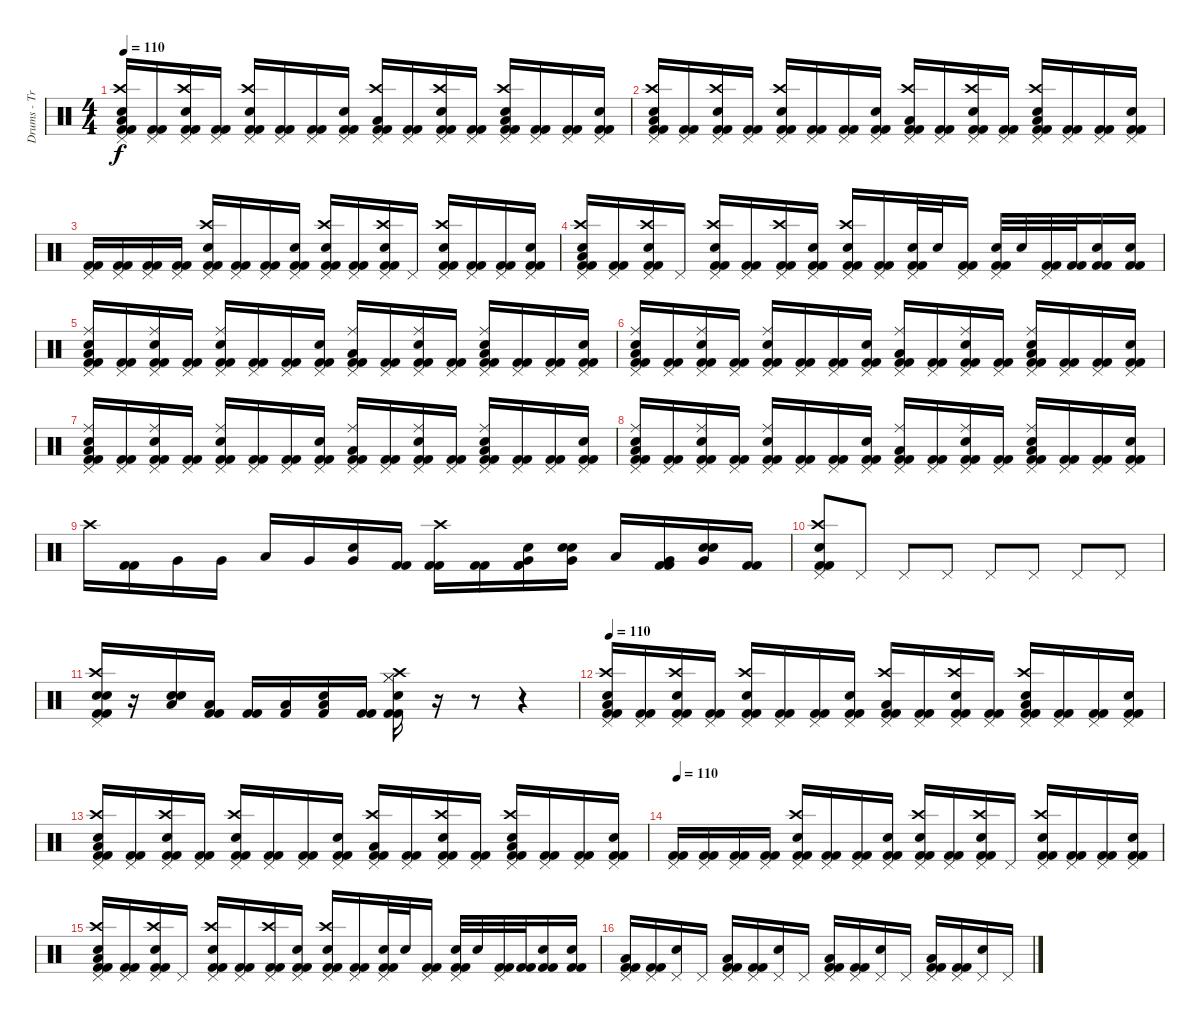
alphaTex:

\track ("Drums - Travis Barker" "Drums - Tr") {instrument percussion}
\staff {score}
\articulation defaults
\ts (4 4)
\tempo 110
\clef neutral
\ks c
("Pedal Hi-Hat (hit)" "Crash high (hit)" "Low Tom (hit)" "Electric Snare (hit)" "Kick (hit) 2" "Kick (hit) 2").16{dy f} ("Pedal Hi-Hat (hit)" "Kick (hit) 2" "Kick (hit) 2").16 ("Pedal Hi-Hat (hit)" "Crash high (hit)" "Electric Snare (hit)" "Kick (hit) 2" "Kick (hit) 2").16 ("Pedal Hi-Hat (hit)" "Kick (hit) 2" "Kick (hit) 2").16 ("Pedal Hi-Hat (hit)" "Crash high (hit)" "Electric Snare (hit)" "Kick (hit) 2" "Kick (hit) 2").16 ("Pedal Hi-Hat (hit)" "Kick (hit) 2" "Kick (hit) 2").16 ("Pedal Hi-Hat (hit)" "Kick (hit) 2" "Kick (hit) 2").16 ("Pedal Hi-Hat (hit)" "Electric Snare (hit)" "Kick (hit) 2" "Kick (hit) 2").16 ("Pedal Hi-Hat (hit)" "Crash high (hit)" "Low Tom (hit)" "Kick (hit) 2" "Kick (hit) 2").16 ("Pedal Hi-Hat (hit)" "Kick (hit) 2" "Kick (hit) 2").16 ("Pedal Hi-Hat (hit)" "Crash high (hit)" "Electric Snare (hit)" "Kick (hit) 2" "Kick (hit) 2").16 ("Pedal Hi-Hat (hit)" "Kick (hit) 2" "Kick (hit) 2").16 ("Pedal Hi-Hat (hit)" "Crash high (hit)" "Low Tom (hit)" "Electric Snare (hit)" "Kick (hit) 2" "Kick (hit) 2").16 ("Pedal Hi-Hat (hit)" "Kick (hit) 2" "Kick (hit) 2").16 ("Pedal Hi-Hat (hit)" "Kick (hit) 2" "Kick (hit) 2").16 ("Pedal Hi-Hat (hit)" "Electric Snare (hit)" "Kick (hit) 2" "Kick (hit) 2").16 |
("Pedal Hi-Hat (hit)" "Crash high (hit)" "Low Tom (hit)" "Electric Snare (hit)" "Kick (hit) 2" "Kick (hit) 2").16 ("Pedal Hi-Hat (hit)" "Kick (hit) 2" "Kick (hit) 2").16 ("Pedal Hi-Hat (hit)" "Crash high (hit)" "Electric Snare (hit)" "Kick (hit) 2" "Kick (hit) 2").16 ("Pedal Hi-Hat (hit)" "Kick (hit) 2" "Kick (hit) 2").16 ("Pedal Hi-Hat (hit)" "Crash high (hit)" "Electric Snare (hit)" "Kick (hit) 2" "Kick (hit) 2").16 ("Pedal Hi-Hat (hit)" "Kick (hit) 2" "Kick (hit) 2").16 ("Pedal Hi-Hat (hit)" "Kick (hit) 2" "Kick (hit) 2").16 ("Pedal Hi-Hat (hit)" "Electric Snare (hit)" "Kick (hit) 2" "Kick (hit) 2").16 ("Pedal Hi-Hat (hit)" "Crash high (hit)" "Low Tom (hit)" "Kick (hit) 2" "Kick (hit) 2").16 ("Pedal Hi-Hat (hit)" "Kick (hit) 2" "Kick (hit) 2").16 ("Pedal Hi-Hat (hit)" "Crash high (hit)" "Electric Snare (hit)" "Kick (hit) 2" "Kick (hit) 2").16 ("Pedal Hi-Hat (hit)" "Kick (hit) 2" "Kick (hit) 2").16 ("Pedal Hi-Hat (hit)" "Crash high (hit)" "Low Tom (hit)" "Electric Snare (hit)" "Kick (hit) 2" "Kick (hit) 2").16 ("Pedal Hi-Hat (hit)" "Kick (hit) 2" "Kick (hit) 2").16 ("Pedal Hi-Hat (hit)" "Kick (hit) 2" "Kick (hit) 2").16 ("Pedal Hi-Hat (hit)" "Electric Snare (hit)" "Kick (hit) 2" "Kick (hit) 2").16 |
("Pedal Hi-Hat (hit)" "Kick (hit) 2" "Kick (hit) 2").16 ("Pedal Hi-Hat (hit)" "Kick (hit) 2" "Kick (hit) 2").16 ("Pedal Hi-Hat (hit)" "Kick (hit) 2" "Kick (hit) 2").16 ("Pedal Hi-Hat (hit)" "Kick (hit) 2" "Kick (hit) 2").16 ("Pedal Hi-Hat (hit)" "Crash high (hit)" "Electric Snare (hit)" "Kick (hit) 2" "Kick (hit) 2").16 ("Pedal Hi-Hat (hit)" "Kick (hit) 2" "Kick (hit) 2").16 ("Pedal Hi-Hat (hit)" "Kick (hit) 2" "Kick (hit) 2").16 ("Pedal Hi-Hat (hit)" "Electric Snare (hit)" "Kick (hit) 2" "Kick (hit) 2").16 ("Pedal Hi-Hat (hit)" "Crash high (hit)" "Electric Snare (hit)" "Kick (hit) 2" "Kick (hit) 2").16 ("Pedal Hi-Hat (hit)" "Kick (hit) 2" "Kick (hit) 2").16 ("Pedal Hi-Hat (hit)" "Crash high (hit)" "Electric Snare (hit)" "Kick (hit) 2" "Kick (hit) 2").16 "Pedal Hi-Hat (hit)".16 ("Pedal Hi-Hat (hit)" "Crash high (hit)" "Electric Snare (hit)" "Kick (hit) 2" "Kick (hit) 2").16 ("Pedal Hi-Hat (hit)" "Kick (hit) 2" "Kick (hit) 2").16 ("Pedal Hi-Hat (hit)" "Kick (hit) 2" "Kick (hit) 2").16 ("Pedal Hi-Hat (hit)" "Electric Snare (hit)" "Kick (hit) 2" "Kick (hit) 2").16 |
("Pedal Hi-Hat (hit)" "Crash high (hit)" "Low Tom (hit)" "Electric Snare (hit)" "Kick (hit) 2" "Kick (hit) 2").16 ("Pedal Hi-Hat (hit)" "Kick (hit) 2" "Kick (hit) 2").16 ("Pedal Hi-Hat (hit)" "Crash high (hit)" "Electric Snare (hit)" "Kick (hit) 2" "Kick (hit) 2").16 "Pedal Hi-Hat (hit)".16 ("Pedal Hi-Hat (hit)" "Crash high (hit)" "Electric Snare (hit)" "Kick (hit) 2" "Kick (hit) 2").16 ("Pedal Hi-Hat (hit)" "Kick (hit) 2" "Kick (hit) 2").16 ("Pedal Hi-Hat (hit)" "Crash high (hit)" "Kick (hit) 2" "Kick (hit) 2").16 ("Pedal Hi-Hat (hit)" "Electric Snare (hit)" "Kick (hit) 2" "Kick (hit) 2").16 ("Pedal Hi-Hat (hit)" "Crash high (hit)" "Electric Snare (hit)" "Kick (hit) 2" "Kick (hit) 2").16 ("Pedal Hi-Hat (hit)" "Kick (hit) 2" "Kick (hit) 2").16 ("Pedal Hi-Hat (hit)" "Electric Snare (hit)" "Kick (hit) 2" "Kick (hit) 2").32 "Electric Snare (hit)".32 ("Pedal Hi-Hat (hit)" "Kick (hit) 2" "Kick (hit) 2").16 ("Pedal Hi-Hat (hit)" "Electric Snare (hit)" "Kick (hit) 2" "Kick (hit) 2").32 "Electric Snare (hit)".32 ("Pedal Hi-Hat (hit)" "Kick (hit) 2" "Kick (hit) 2").32 ("Kick (hit) 2" "Kick (hit) 2").32 ("Electric Snare (hit)" "Kick (hit) 2" "Kick (hit) 2").16 ("Electric Snare (hit)" "Kick (hit) 2" "Kick (hit) 2").16 |
("Pedal Hi-Hat (hit)" "Ride (middle)" "Low Tom (hit)" "Electric Snare (hit)" "Kick (hit) 2" "Kick (hit) 2").16 ("Pedal Hi-Hat (hit)" "Kick (hit) 2" "Kick (hit) 2").16 ("Pedal Hi-Hat (hit)" "Ride (middle)" "Electric Snare (hit)" "Kick (hit) 2" "Kick (hit) 2").16 ("Pedal Hi-Hat (hit)" "Kick (hit) 2" "Kick (hit) 2").16 ("Pedal Hi-Hat (hit)" "Ride (middle)" "Electric Snare (hit)" "Kick (hit) 2" "Kick (hit) 2").16 ("Pedal Hi-Hat (hit)" "Kick (hit) 2" "Kick (hit) 2").16 ("Pedal Hi-Hat (hit)" "Kick (hit) 2" "Kick (hit) 2").16 ("Pedal Hi-Hat (hit)" "Electric Snare (hit)" "Kick (hit) 2" "Kick (hit) 2").16 ("Pedal Hi-Hat (hit)" "Ride (middle)" "Low Tom (hit)" "Kick (hit) 2" "Kick (hit) 2").16 ("Pedal Hi-Hat (hit)" "Kick (hit) 2" "Kick (hit) 2").16 ("Pedal Hi-Hat (hit)" "Ride (middle)" "Electric Snare (hit)" "Kick (hit) 2" "Kick (hit) 2").16 ("Pedal Hi-Hat (hit)" "Kick (hit) 2" "Kick (hit) 2").16 ("Pedal Hi-Hat (hit)" "Ride (middle)" "Low Tom (hit)" "Electric Snare (hit)" "Kick (hit) 2" "Kick (hit) 2").16 ("Pedal Hi-Hat (hit)" "Kick (hit) 2" "Kick (hit) 2").16 ("Pedal Hi-Hat (hit)" "Kick (hit) 2" "Kick (hit) 2").16 ("Pedal Hi-Hat (hit)" "Electric Snare (hit)" "Kick (hit) 2" "Kick (hit) 2").16 |
("Pedal Hi-Hat (hit)" "Ride (middle)" "Low Tom (hit)" "Electric Snare (hit)" "Kick (hit) 2" "Kick (hit) 2").16 ("Pedal Hi-Hat (hit)" "Kick (hit) 2" "Kick (hit) 2").16 ("Pedal Hi-Hat (hit)" "Ride (middle)" "Electric Snare (hit)" "Kick (hit) 2" "Kick (hit) 2").16 ("Pedal Hi-Hat (hit)" "Kick (hit) 2" "Kick (hit) 2").16 ("Pedal Hi-Hat (hit)" "Ride (middle)" "Electric Snare (hit)" "Kick (hit) 2" "Kick (hit) 2").16 ("Pedal Hi-Hat (hit)" "Kick (hit) 2" "Kick (hit) 2").16 ("Pedal Hi-Hat (hit)" "Kick (hit) 2" "Kick (hit) 2").16 ("Pedal Hi-Hat (hit)" "Electric Snare (hit)" "Kick (hit) 2" "Kick (hit) 2").16 ("Pedal Hi-Hat (hit)" "Ride (middle)" "Low Tom (hit)" "Kick (hit) 2" "Kick (hit) 2").16 ("Pedal Hi-Hat (hit)" "Kick (hit) 2" "Kick (hit) 2").16 ("Pedal Hi-Hat (hit)" "Ride (middle)" "Electric Snare (hit)" "Kick (hit) 2" "Kick (hit) 2").16 ("Pedal Hi-Hat (hit)" "Kick (hit) 2" "Kick (hit) 2").16 ("Pedal Hi-Hat (hit)" "Ride (middle)" "Low Tom (hit)" "Electric Snare (hit)" "Kick (hit) 2" "Kick (hit) 2").16 ("Pedal Hi-Hat (hit)" "Kick (hit) 2" "Kick (hit) 2").16 ("Pedal Hi-Hat (hit)" "Kick (hit) 2" "Kick (hit) 2").16 ("Pedal Hi-Hat (hit)" "Electric Snare (hit)" "Kick (hit) 2" "Kick (hit) 2").16 |
("Pedal Hi-Hat (hit)" "Ride (middle)" "Low Tom (hit)" "Electric Snare (hit)" "Kick (hit) 2" "Kick (hit) 2").16 ("Pedal Hi-Hat (hit)" "Kick (hit) 2" "Kick (hit) 2").16 ("Pedal Hi-Hat (hit)" "Ride (middle)" "Electric Snare (hit)" "Kick (hit) 2" "Kick (hit) 2").16 ("Pedal Hi-Hat (hit)" "Kick (hit) 2" "Kick (hit) 2").16 ("Pedal Hi-Hat (hit)" "Ride (middle)" "Electric Snare (hit)" "Kick (hit) 2" "Kick (hit) 2").16 ("Pedal Hi-Hat (hit)" "Kick (hit) 2" "Kick (hit) 2").16 ("Pedal Hi-Hat (hit)" "Kick (hit) 2" "Kick (hit) 2").16 ("Pedal Hi-Hat (hit)" "Electric Snare (hit)" "Kick (hit) 2" "Kick (hit) 2").16 ("Pedal Hi-Hat (hit)" "Ride (middle)" "Low Tom (hit)" "Kick (hit) 2" "Kick (hit) 2").16 ("Pedal Hi-Hat (hit)" "Kick (hit) 2" "Kick (hit) 2").16 ("Pedal Hi-Hat (hit)" "Ride (middle)" "Electric Snare (hit)" "Kick (hit) 2" "Kick (hit) 2").16 ("Pedal Hi-Hat (hit)" "Kick (hit) 2" "Kick (hit) 2").16 ("Pedal Hi-Hat (hit)" "Ride (middle)" "Low Tom (hit)" "Electric Snare (hit)" "Kick (hit) 2" "Kick (hit) 2").16 ("Pedal Hi-Hat (hit)" "Kick (hit) 2" "Kick (hit) 2").16 ("Pedal Hi-Hat (hit)" "Kick (hit) 2" "Kick (hit) 2").16 ("Pedal Hi-Hat (hit)" "Electric Snare (hit)" "Kick (hit) 2" "Kick (hit) 2").16 |
("Pedal Hi-Hat (hit)" "Ride (middle)" "Low Tom (hit)" "Electric Snare (hit)" "Kick (hit) 2" "Kick (hit) 2").16 ("Pedal Hi-Hat (hit)" "Kick (hit) 2" "Kick (hit) 2").16 ("Pedal Hi-Hat (hit)" "Ride (middle)" "Electric Snare (hit)" "Kick (hit) 2" "Kick (hit) 2").16 ("Pedal Hi-Hat (hit)" "Kick (hit) 2" "Kick (hit) 2").16 ("Pedal Hi-Hat (hit)" "Ride (middle)" "Electric Snare (hit)" "Kick (hit) 2" "Kick (hit) 2").16 ("Pedal Hi-Hat (hit)" "Kick (hit) 2" "Kick (hit) 2").16 ("Pedal Hi-Hat (hit)" "Kick (hit) 2" "Kick (hit) 2").16 ("Pedal Hi-Hat (hit)" "Electric Snare (hit)" "Kick (hit) 2" "Kick (hit) 2").16 ("Pedal Hi-Hat (hit)" "Ride (middle)" "Low Tom (hit)" "Kick (hit) 2" "Kick (hit) 2").16 ("Pedal Hi-Hat (hit)" "Kick (hit) 2" "Kick (hit) 2").16 ("Pedal Hi-Hat (hit)" "Ride (middle)" "Electric Snare (hit)" "Kick (hit) 2" "Kick (hit) 2").16 ("Pedal Hi-Hat (hit)" "Kick (hit) 2" "Kick (hit) 2").16 ("Pedal Hi-Hat (hit)" "Ride (middle)" "Low Tom (hit)" "Electric Snare (hit)" "Kick (hit) 2" "Kick (hit) 2").16 ("Pedal Hi-Hat (hit)" "Kick (hit) 2" "Kick (hit) 2").16 ("Pedal Hi-Hat (hit)" "Kick (hit) 2" "Kick (hit) 2").16 ("Pedal Hi-Hat (hit)" "Electric Snare (hit)" "Kick (hit) 2" "Kick (hit) 2").16 |
"Crash high (hit)".16 ("Kick (hit) 2" "Kick (hit) 2").16 "Very Low Tom (hit)".16 "Very Low Tom (hit)".16 "Low Tom (hit)".16 "Very Low Tom (hit)".16 ("Very Low Tom (hit)" "Electric Snare (hit)").16 ("Kick (hit) 2" "Kick (hit) 2").16 ("Crash high (hit)" "Kick (hit) 2" "Kick (hit) 2").16 ("Kick (hit) 2" "Kick (hit) 2").16 ("Very Low Tom (hit)" "Electric Snare (hit)" "Kick (hit) 2" "Kick (hit) 2").16 ("Very Low Tom (hit)" "Electric Snare (hit)" "Electric Snare (hit)").16 "Low Tom (hit)".16 ("Very Low Tom (hit)" "Kick (hit) 2" "Kick (hit) 2").16 ("Very Low Tom (hit)" "Electric Snare (hit)" "Electric Snare (hit)").16 ("Kick (hit) 2" "Kick (hit) 2").16 |
("Pedal Hi-Hat (hit)" "Crash high (hit)" "Electric Snare (hit)" "Kick (hit) 2" "Kick (hit) 2").8 "Pedal Hi-Hat (hit)".8 "Pedal Hi-Hat (hit)".8 "Pedal Hi-Hat (hit)".8 "Pedal Hi-Hat (hit)".8 "Pedal Hi-Hat (hit)".8 "Pedal Hi-Hat (hit)".8 "Pedal Hi-Hat (hit)".8 |
("Pedal Hi-Hat (hit)" "Crash high (hit)" "Electric Snare (hit)" "Electric Snare (hit)" "Kick (hit) 2" "Kick (hit) 2").16 r.16 ("Low Tom (hit)" "Electric Snare (hit)" "Electric Snare (hit)").16 ("Low Tom (hit)" "Kick (hit) 2" "Kick (hit) 2").16 ("Kick (hit) 2" "Kick (hit) 2").16 ("Low Tom (hit)" "Kick (hit) 2").16 ("Low Tom (hit)" "Kick (hit) 2" "Electric Snare (hit)").16 ("Kick (hit) 2" "Kick (hit) 2").16 ("Hi-Hat (closed)" "Hi-Hat (closed)" "Crash high (hit)" "Kick (hit) 2" "Electric Snare (hit)" "Kick (hit) 2").16 r.16 r.8 r.4 |
\tempo 110
("Pedal Hi-Hat (hit)" "Crash high (hit)" "Low Tom (hit)" "Electric Snare (hit)" "Kick (hit) 2" "Kick (hit) 2").16 ("Pedal Hi-Hat (hit)" "Kick (hit) 2" "Kick (hit) 2").16 ("Pedal Hi-Hat (hit)" "Crash high (hit)" "Electric Snare (hit)" "Kick (hit) 2" "Kick (hit) 2").16 ("Pedal Hi-Hat (hit)" "Kick (hit) 2" "Kick (hit) 2").16 ("Pedal Hi-Hat (hit)" "Crash high (hit)" "Electric Snare (hit)" "Kick (hit) 2" "Kick (hit) 2").16 ("Pedal Hi-Hat (hit)" "Kick (hit) 2" "Kick (hit) 2").16 ("Pedal Hi-Hat (hit)" "Kick (hit) 2" "Kick (hit) 2").16 ("Pedal Hi-Hat (hit)" "Electric Snare (hit)" "Kick (hit) 2" "Kick (hit) 2").16 ("Pedal Hi-Hat (hit)" "Crash high (hit)" "Low Tom (hit)" "Kick (hit) 2" "Kick (hit) 2").16 ("Pedal Hi-Hat (hit)" "Kick (hit) 2" "Kick (hit) 2").16 ("Pedal Hi-Hat (hit)" "Crash high (hit)" "Electric Snare (hit)" "Kick (hit) 2" "Kick (hit) 2").16 ("Pedal Hi-Hat (hit)" "Kick (hit) 2" "Kick (hit) 2").16 ("Pedal Hi-Hat (hit)" "Crash high (hit)" "Low Tom (hit)" "Electric Snare (hit)" "Kick (hit) 2" "Kick (hit) 2").16 ("Pedal Hi-Hat (hit)" "Kick (hit) 2" "Kick (hit) 2").16 ("Pedal Hi-Hat (hit)" "Kick (hit) 2" "Kick (hit) 2").16 ("Pedal Hi-Hat (hit)" "Electric Snare (hit)" "Kick (hit) 2" "Kick (hit) 2").16 |
("Pedal Hi-Hat (hit)" "Crash high (hit)" "Low Tom (hit)" "Electric Snare (hit)" "Kick (hit) 2" "Kick (hit) 2").16 ("Pedal Hi-Hat (hit)" "Kick (hit) 2" "Kick (hit) 2").16 ("Pedal Hi-Hat (hit)" "Crash high (hit)" "Electric Snare (hit)" "Kick (hit) 2" "Kick (hit) 2").16 ("Pedal Hi-Hat (hit)" "Kick (hit) 2" "Kick (hit) 2").16 ("Pedal Hi-Hat (hit)" "Crash high (hit)" "Electric Snare (hit)" "Kick (hit) 2" "Kick (hit) 2").16 ("Pedal Hi-Hat (hit)" "Kick (hit) 2" "Kick (hit) 2").16 ("Pedal Hi-Hat (hit)" "Kick (hit) 2" "Kick (hit) 2").16 ("Pedal Hi-Hat (hit)" "Electric Snare (hit)" "Kick (hit) 2" "Kick (hit) 2").16 ("Pedal Hi-Hat (hit)" "Crash high (hit)" "Low Tom (hit)" "Kick (hit) 2" "Kick (hit) 2").16 ("Pedal Hi-Hat (hit)" "Kick (hit) 2" "Kick (hit) 2").16 ("Pedal Hi-Hat (hit)" "Crash high (hit)" "Electric Snare (hit)" "Kick (hit) 2" "Kick (hit) 2").16 ("Pedal Hi-Hat (hit)" "Kick (hit) 2" "Kick (hit) 2").16 ("Pedal Hi-Hat (hit)" "Crash high (hit)" "Low Tom (hit)" "Electric Snare (hit)" "Kick (hit) 2" "Kick (hit) 2").16 ("Pedal Hi-Hat (hit)" "Kick (hit) 2" "Kick (hit) 2").16 ("Pedal Hi-Hat (hit)" "Kick (hit) 2" "Kick (hit) 2").16 ("Pedal Hi-Hat (hit)" "Electric Snare (hit)" "Kick (hit) 2" "Kick (hit) 2").16 |
\tempo 110
("Pedal Hi-Hat (hit)" "Kick (hit) 2" "Kick (hit) 2").16 ("Pedal Hi-Hat (hit)" "Kick (hit) 2" "Kick (hit) 2").16 ("Pedal Hi-Hat (hit)" "Kick (hit) 2" "Kick (hit) 2").16 ("Pedal Hi-Hat (hit)" "Kick (hit) 2" "Kick (hit) 2").16 ("Pedal Hi-Hat (hit)" "Crash high (hit)" "Electric Snare (hit)" "Kick (hit) 2" "Kick (hit) 2").16 ("Pedal Hi-Hat (hit)" "Kick (hit) 2" "Kick (hit) 2").16 ("Pedal Hi-Hat (hit)" "Kick (hit) 2" "Kick (hit) 2").16 ("Pedal Hi-Hat (hit)" "Electric Snare (hit)" "Kick (hit) 2" "Kick (hit) 2").16 ("Pedal Hi-Hat (hit)" "Crash high (hit)" "Electric Snare (hit)" "Kick (hit) 2" "Kick (hit) 2").16 ("Pedal Hi-Hat (hit)" "Kick (hit) 2" "Kick (hit) 2").16 ("Pedal Hi-Hat (hit)" "Crash high (hit)" "Electric Snare (hit)" "Kick (hit) 2" "Kick (hit) 2").16 "Pedal Hi-Hat (hit)".16 ("Pedal Hi-Hat (hit)" "Crash high (hit)" "Electric Snare (hit)" "Kick (hit) 2" "Kick (hit) 2").16 ("Pedal Hi-Hat (hit)" "Kick (hit) 2" "Kick (hit) 2").16 ("Pedal Hi-Hat (hit)" "Kick (hit) 2" "Kick (hit) 2").16 ("Pedal Hi-Hat (hit)" "Electric Snare (hit)" "Kick (hit) 2" "Kick (hit) 2").16 |
("Pedal Hi-Hat (hit)" "Crash high (hit)" "Low Tom (hit)" "Electric Snare (hit)" "Kick (hit) 2" "Kick (hit) 2").16 ("Pedal Hi-Hat (hit)" "Kick (hit) 2" "Kick (hit) 2").16 ("Pedal Hi-Hat (hit)" "Crash high (hit)" "Electric Snare (hit)" "Kick (hit) 2" "Kick (hit) 2").16 "Pedal Hi-Hat (hit)".16 ("Pedal Hi-Hat (hit)" "Crash high (hit)" "Electric Snare (hit)" "Kick (hit) 2" "Kick (hit) 2").16 ("Pedal Hi-Hat (hit)" "Kick (hit) 2" "Kick (hit) 2").16 ("Pedal Hi-Hat (hit)" "Crash high (hit)" "Kick (hit) 2" "Kick (hit) 2").16 ("Pedal Hi-Hat (hit)" "Electric Snare (hit)" "Kick (hit) 2" "Kick (hit) 2").16 ("Pedal Hi-Hat (hit)" "Crash high (hit)" "Electric Snare (hit)" "Kick (hit) 2" "Kick (hit) 2").16 ("Pedal Hi-Hat (hit)" "Kick (hit) 2" "Kick (hit) 2").16 ("Pedal Hi-Hat (hit)" "Electric Snare (hit)" "Kick (hit) 2" "Kick (hit) 2").32 "Electric Snare (hit)".32 ("Pedal Hi-Hat (hit)" "Kick (hit) 2" "Kick (hit) 2").16 ("Pedal Hi-Hat (hit)" "Electric Snare (hit)" "Kick (hit) 2" "Kick (hit) 2").32 "Electric Snare (hit)".32 ("Pedal Hi-Hat (hit)" "Kick (hit) 2" "Kick (hit) 2").32 ("Kick (hit) 2" "Kick (hit) 2").32 ("Electric Snare (hit)" "Kick (hit) 2" "Kick (hit) 2").16 ("Electric Snare (hit)" "Kick (hit) 2" "Kick (hit) 2").16 |
("Pedal Hi-Hat (hit)" "Low Tom (hit)" "Kick (hit) 2" "Kick (hit) 2").16 ("Pedal Hi-Hat (hit)" "Kick (hit) 2" "Kick (hit) 2").16 ("Pedal Hi-Hat (hit)" "Electric Snare (hit)").16 "Pedal Hi-Hat (hit)".16 ("Pedal Hi-Hat (hit)" "Low Tom (hit)" "Kick (hit) 2" "Kick (hit) 2").16 ("Pedal Hi-Hat (hit)" "Kick (hit) 2" "Kick (hit) 2").16 ("Pedal Hi-Hat (hit)" "Electric Snare (hit)").16 "Pedal Hi-Hat (hit)".16 ("Pedal Hi-Hat (hit)" "Low Tom (hit)" "Kick (hit) 2" "Kick (hit) 2").16 ("Pedal Hi-Hat (hit)" "Kick (hit) 2" "Kick (hit) 2").16 ("Pedal Hi-Hat (hit)" "Electric Snare (hit)").16 "Pedal Hi-Hat (hit)".16 ("Pedal Hi-Hat (hit)" "Low Tom (hit)" "Kick (hit) 2" "Kick (hit) 2").16 ("Pedal Hi-Hat (hit)" "Kick (hit) 2" "Kick (hit) 2").16 ("Pedal Hi-Hat (hit)" "Electric Snare (hit)").16 "Pedal Hi-Hat (hit)".16
